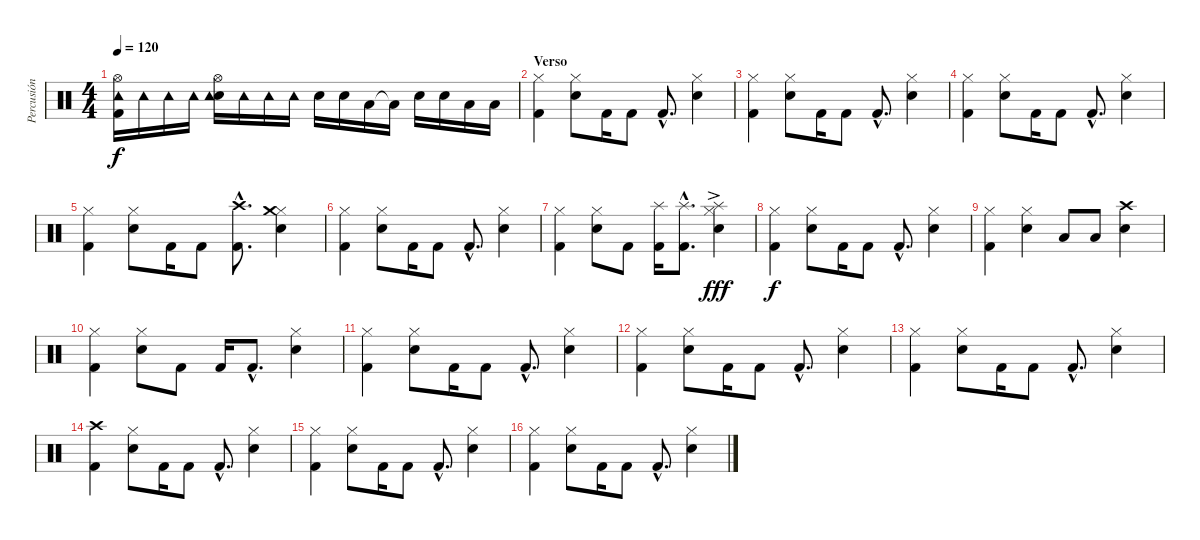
\track ("Percusión" "Percusión") {instrument percussion}
\staff {score}
\articulation defaults
\ts (4 4)
\tempo 120
\clef neutral
\ks c
("Hi-Hat (open)" "Kick (hit) 2" "Tambourine (hit)").16{dy f} "Tambourine (hit)".16 "Tambourine (hit)".16 "Tambourine (hit)".16 ("Hi-Hat (open)" "Electric Snare (hit)" "Tambourine (hit)").16 "Tambourine (hit)".16 "Tambourine (hit)".16 "Tambourine (hit)".16 "Electric Snare (hit)".16 "Electric Snare (hit)".16 "Low Tom (hit)".16 "Low Floor Tom (hit)"{t}.16 "Electric Snare (hit)".16 "Electric Snare (hit)".16 "Low Tom (hit)".16 "Low Tom (hit)".16 |
\section ("" "Verso")
("Hi-Hat (closed)" "Kick (hit) 2").4 ("Hi-Hat (closed)" "Electric Snare (hit)").8 "Kick (hit) 2".16 "Kick (hit) 2".8 "Kick (hit) 2"{hac}.8{d} ("Hi-Hat (closed)" "Electric Snare (hit)").4 |
("Hi-Hat (closed)" "Kick (hit) 2").4 ("Hi-Hat (closed)" "Electric Snare (hit)").8 "Kick (hit) 2".16 "Kick (hit) 2".8 "Kick (hit) 2"{hac}.8{d} ("Hi-Hat (closed)" "Electric Snare (hit)").4 |
("Hi-Hat (closed)" "Kick (hit) 2").4 ("Hi-Hat (closed)" "Electric Snare (hit)").8 "Kick (hit) 2".16 "Kick (hit) 2".8 "Kick (hit) 2"{hac}.8{d} ("Hi-Hat (closed)" "Electric Snare (hit)").4 |
("Hi-Hat (closed)" "Kick (hit) 2").4 ("Hi-Hat (closed)" "Electric Snare (hit)").8 "Kick (hit) 2".16 "Kick (hit) 2".8 ("Kick (hit) 2"{hac} "Crash high (hit)"{hac}).8{d} ("Hi-Hat (closed)" "Crash medium (hit)" "Electric Snare (hit)").4 |
("Hi-Hat (closed)" "Kick (hit) 2").4 ("Hi-Hat (closed)" "Electric Snare (hit)").8 "Kick (hit) 2".16 "Kick (hit) 2".8 "Kick (hit) 2"{hac}.8{d} ("Hi-Hat (closed)" "Electric Snare (hit)").4 |
("Hi-Hat (closed)" "Kick (hit) 2").4 ("Hi-Hat (closed)" "Electric Snare (hit)").8 "Kick (hit) 2".8 ("Kick (hit) 2" "Splash (hit)").16 ("Kick (hit) 2"{hac} "Splash (hit)"{hac}).8{d} ("Hi-Hat (closed)" "Splash (hit)"{ac} "Electric Snare (hit)").4{dy fff} |
("Hi-Hat (closed)" "Kick (hit) 2").4{dy f} ("Hi-Hat (closed)" "Electric Snare (hit)").8 "Kick (hit) 2".16 "Kick (hit) 2".8 "Kick (hit) 2"{hac}.8{d} ("Hi-Hat (closed)" "Electric Snare (hit)").4 |
("Hi-Hat (closed)" "Kick (hit) 2").4 ("Hi-Hat (closed)" "Electric Snare (hit)").4 "Low Tom (hit)".8 "Low Tom (hit)".8 ("Crash high (hit)" "Electric Snare (hit)").4 |
("Hi-Hat (closed)" "Kick (hit) 2").4 ("Hi-Hat (closed)" "Electric Snare (hit)").8 "Kick (hit) 2".8 "Kick (hit) 2".16 "Kick (hit) 2"{hac}.8{d} ("Hi-Hat (closed)" "Electric Snare (hit)").4 |
("Hi-Hat (closed)" "Kick (hit) 2").4 ("Hi-Hat (closed)" "Electric Snare (hit)").8 "Kick (hit) 2".16 "Kick (hit) 2".8 "Kick (hit) 2"{hac}.8{d} ("Hi-Hat (closed)" "Electric Snare (hit)").4 |
("Hi-Hat (closed)" "Kick (hit) 2").4 ("Hi-Hat (closed)" "Electric Snare (hit)").8 "Kick (hit) 2".16 "Kick (hit) 2".8 "Kick (hit) 2"{hac}.8{d} ("Hi-Hat (closed)" "Electric Snare (hit)").4 |
("Hi-Hat (closed)" "Kick (hit) 2").4 ("Hi-Hat (closed)" "Electric Snare (hit)").8 "Kick (hit) 2".16 "Kick (hit) 2".8 "Kick (hit) 2"{hac}.8{d} ("Hi-Hat (closed)" "Electric Snare (hit)").4 |
("Crash high (hit)" "Kick (hit) 2").4 ("Hi-Hat (closed)" "Electric Snare (hit)").8 "Kick (hit) 2".16 "Kick (hit) 2".8 "Kick (hit) 2"{hac}.8{d} ("Hi-Hat (closed)" "Electric Snare (hit)").4 |
("Hi-Hat (closed)" "Kick (hit) 2").4 ("Hi-Hat (closed)" "Electric Snare (hit)").8 "Kick (hit) 2".16 "Kick (hit) 2".8 "Kick (hit) 2"{hac}.8{d} ("Hi-Hat (closed)" "Electric Snare (hit)").4 |
("Hi-Hat (closed)" "Kick (hit) 2").4 ("Hi-Hat (closed)" "Electric Snare (hit)").8 "Kick (hit) 2".16 "Kick (hit) 2".8 "Kick (hit) 2"{hac}.8{d} ("Hi-Hat (closed)" "Electric Snare (hit)").4
